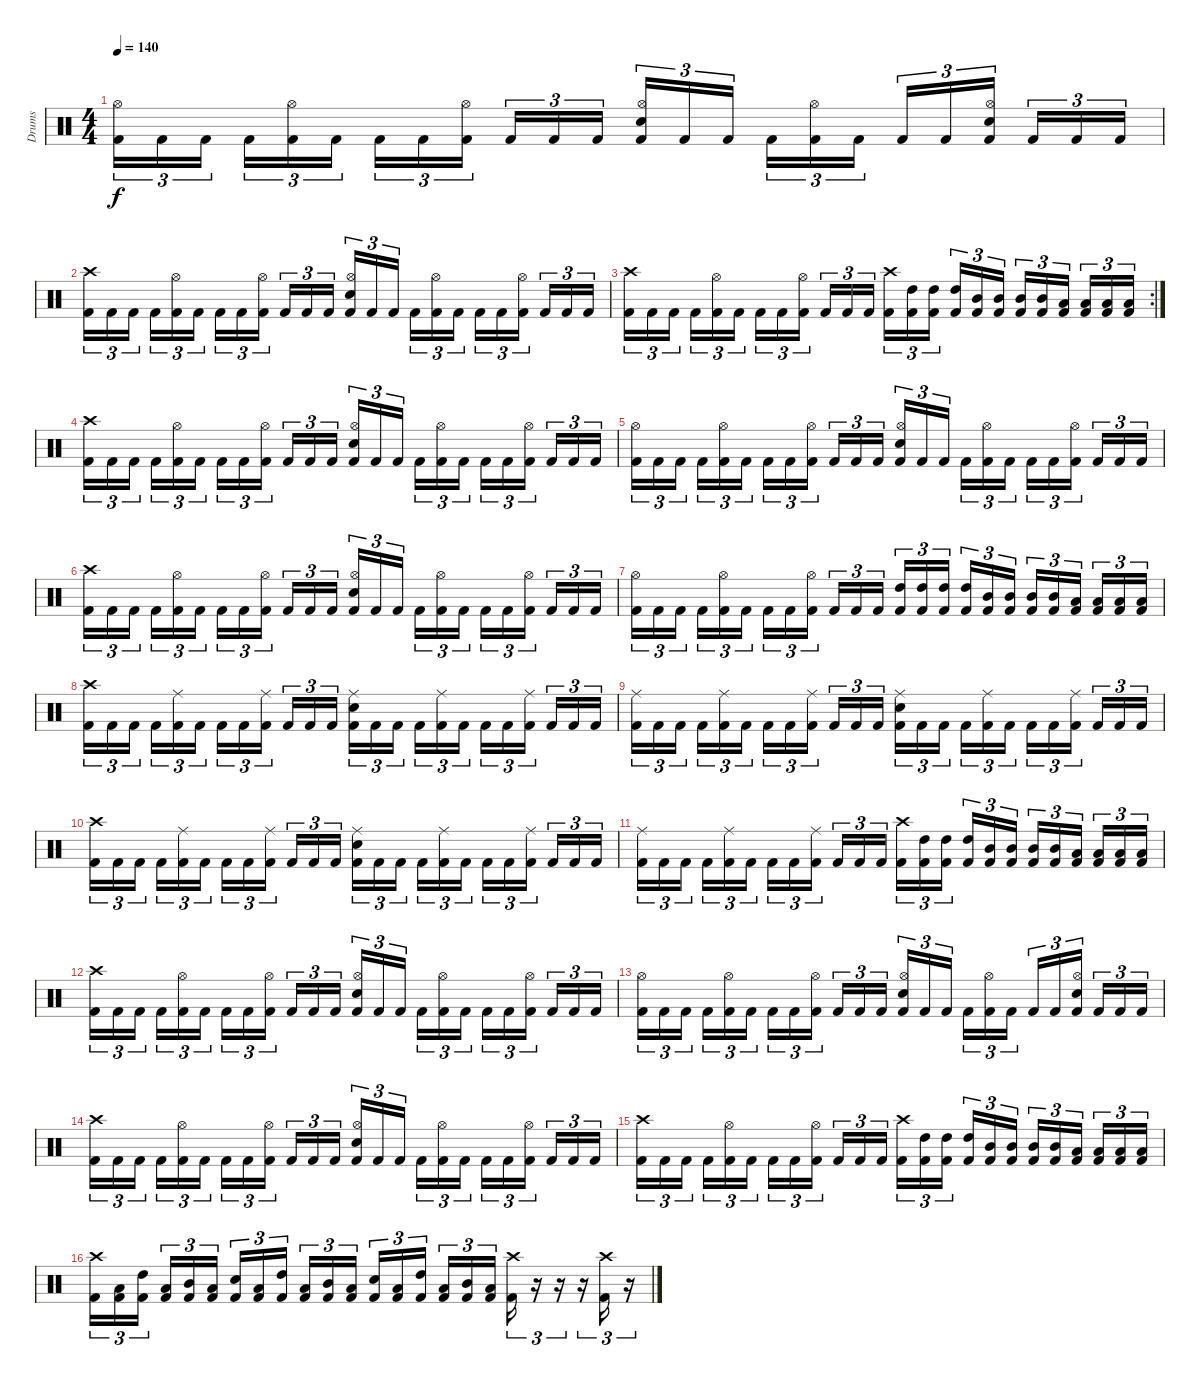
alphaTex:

\track ("Drums" "Drums") {instrument percussion}
\staff {score}
\articulation defaults
\ts (4 4)
\tempo 140
\clef neutral
\ks c
("Kick (hit) 2" "Hi-Hat (open)").16{tu (3 2) dy f} "Kick (hit) 2".16{tu (3 2)} "Kick (hit) 2".16{tu (3 2)} "Kick (hit) 2".16{tu (3 2)} ("Kick (hit) 2" "Hi-Hat (open)").16{tu (3 2)} "Kick (hit) 2".16{tu (3 2)} "Kick (hit) 2".16{tu (3 2)} "Kick (hit) 2".16{tu (3 2)} ("Kick (hit) 2" "Hi-Hat (open)").16{tu (3 2)} "Kick (hit) 2".16{tu (3 2)} "Kick (hit) 2".16{tu (3 2)} "Kick (hit) 2".16{tu (3 2)} ("Kick (hit) 2" "Snare (hit) 2" "Hi-Hat (open)").16{tu (3 2)} "Kick (hit) 2".16{tu (3 2)} "Kick (hit) 2".16{tu (3 2)} "Kick (hit) 2".16{tu (3 2)} ("Kick (hit) 2" "Hi-Hat (open)").16{tu (3 2)} "Kick (hit) 2".16{tu (3 2)} "Kick (hit) 2".16{tu (3 2)} "Kick (hit) 2".16{tu (3 2)} ("Kick (hit) 2" "Snare (hit) 2" "Hi-Hat (open)").16{tu (3 2)} "Kick (hit) 2".16{tu (3 2)} "Kick (hit) 2".16{tu (3 2)} "Kick (hit) 2".16{tu (3 2)} |
("Kick (hit) 2" "Crash high (hit)").16{tu (3 2)} "Kick (hit) 2".16{tu (3 2)} "Kick (hit) 2".16{tu (3 2)} "Kick (hit) 2".16{tu (3 2)} ("Kick (hit) 2" "Hi-Hat (open)").16{tu (3 2)} "Kick (hit) 2".16{tu (3 2)} "Kick (hit) 2".16{tu (3 2)} "Kick (hit) 2".16{tu (3 2)} ("Kick (hit) 2" "Hi-Hat (open)").16{tu (3 2)} "Kick (hit) 2".16{tu (3 2)} "Kick (hit) 2".16{tu (3 2)} "Kick (hit) 2".16{tu (3 2)} ("Kick (hit) 2" "Snare (hit) 2" "Hi-Hat (open)").16{tu (3 2)} "Kick (hit) 2".16{tu (3 2)} "Kick (hit) 2".16{tu (3 2)} "Kick (hit) 2".16{tu (3 2)} ("Kick (hit) 2" "Hi-Hat (open)").16{tu (3 2)} "Kick (hit) 2".16{tu (3 2)} "Kick (hit) 2".16{tu (3 2)} "Kick (hit) 2".16{tu (3 2)} ("Kick (hit) 2" "Hi-Hat (open)").16{tu (3 2)} "Kick (hit) 2".16{tu (3 2)} "Kick (hit) 2".16{tu (3 2)} "Kick (hit) 2".16{tu (3 2)} |
\rc 2
("Kick (hit) 2" "Crash high (hit)").16{tu (3 2)} "Kick (hit) 2".16{tu (3 2)} "Kick (hit) 2".16{tu (3 2)} "Kick (hit) 2".16{tu (3 2)} ("Kick (hit) 2" "Hi-Hat (open)").16{tu (3 2)} "Kick (hit) 2".16{tu (3 2)} "Kick (hit) 2".16{tu (3 2)} "Kick (hit) 2".16{tu (3 2)} ("Kick (hit) 2" "Hi-Hat (open)").16{tu (3 2)} "Kick (hit) 2".16{tu (3 2)} "Kick (hit) 2".16{tu (3 2)} "Kick (hit) 2".16{tu (3 2)} ("Kick (hit) 2" "Crash high (hit)").16{tu (3 2)} ("Kick (hit) 2" "High Tom (hit)").16{tu (3 2)} ("Kick (hit) 2" "High Tom (hit)").16{tu (3 2)} ("Kick (hit) 2" "High Tom (hit)").16{tu (3 2)} ("Kick (hit) 2" "Mid Tom (hit)").16{tu (3 2)} ("Kick (hit) 2" "Mid Tom (hit)").16{tu (3 2)} ("Kick (hit) 2" "Mid Tom (hit)").16{tu (3 2)} ("Kick (hit) 2" "Mid Tom (hit)").16{tu (3 2)} ("Kick (hit) 2" "Low Tom (hit)").16{tu (3 2)} ("Kick (hit) 2" "Low Tom (hit)").16{tu (3 2)} ("Kick (hit) 2" "Low Tom (hit)").16{tu (3 2)} ("Kick (hit) 2" "Low Tom (hit)").16{tu (3 2)} |
("Kick (hit) 2" "Crash high (hit)").16{tu (3 2)} "Kick (hit) 2".16{tu (3 2)} "Kick (hit) 2".16{tu (3 2)} "Kick (hit) 2".16{tu (3 2)} ("Kick (hit) 2" "Hi-Hat (open)").16{tu (3 2)} "Kick (hit) 2".16{tu (3 2)} "Kick (hit) 2".16{tu (3 2)} "Kick (hit) 2".16{tu (3 2)} ("Kick (hit) 2" "Hi-Hat (open)").16{tu (3 2)} "Kick (hit) 2".16{tu (3 2)} "Kick (hit) 2".16{tu (3 2)} "Kick (hit) 2".16{tu (3 2)} ("Kick (hit) 2" "Snare (hit) 2" "Hi-Hat (open)").16{tu (3 2)} "Kick (hit) 2".16{tu (3 2)} "Kick (hit) 2".16{tu (3 2)} "Kick (hit) 2".16{tu (3 2)} ("Kick (hit) 2" "Hi-Hat (open)").16{tu (3 2)} "Kick (hit) 2".16{tu (3 2)} "Kick (hit) 2".16{tu (3 2)} "Kick (hit) 2".16{tu (3 2)} ("Kick (hit) 2" "Hi-Hat (open)").16{tu (3 2)} "Kick (hit) 2".16{tu (3 2)} "Kick (hit) 2".16{tu (3 2)} "Kick (hit) 2".16{tu (3 2)} |
("Kick (hit) 2" "Hi-Hat (open)").16{tu (3 2)} "Kick (hit) 2".16{tu (3 2)} "Kick (hit) 2".16{tu (3 2)} "Kick (hit) 2".16{tu (3 2)} ("Kick (hit) 2" "Hi-Hat (open)").16{tu (3 2)} "Kick (hit) 2".16{tu (3 2)} "Kick (hit) 2".16{tu (3 2)} "Kick (hit) 2".16{tu (3 2)} ("Kick (hit) 2" "Hi-Hat (open)").16{tu (3 2)} "Kick (hit) 2".16{tu (3 2)} "Kick (hit) 2".16{tu (3 2)} "Kick (hit) 2".16{tu (3 2)} ("Kick (hit) 2" "Snare (hit) 2" "Hi-Hat (open)").16{tu (3 2)} "Kick (hit) 2".16{tu (3 2)} "Kick (hit) 2".16{tu (3 2)} "Kick (hit) 2".16{tu (3 2)} ("Kick (hit) 2" "Hi-Hat (open)").16{tu (3 2)} "Kick (hit) 2".16{tu (3 2)} "Kick (hit) 2".16{tu (3 2)} "Kick (hit) 2".16{tu (3 2)} ("Kick (hit) 2" "Hi-Hat (open)").16{tu (3 2)} "Kick (hit) 2".16{tu (3 2)} "Kick (hit) 2".16{tu (3 2)} "Kick (hit) 2".16{tu (3 2)} |
("Kick (hit) 2" "Crash high (hit)").16{tu (3 2)} "Kick (hit) 2".16{tu (3 2)} "Kick (hit) 2".16{tu (3 2)} "Kick (hit) 2".16{tu (3 2)} ("Kick (hit) 2" "Hi-Hat (open)").16{tu (3 2)} "Kick (hit) 2".16{tu (3 2)} "Kick (hit) 2".16{tu (3 2)} "Kick (hit) 2".16{tu (3 2)} ("Kick (hit) 2" "Hi-Hat (open)").16{tu (3 2)} "Kick (hit) 2".16{tu (3 2)} "Kick (hit) 2".16{tu (3 2)} "Kick (hit) 2".16{tu (3 2)} ("Kick (hit) 2" "Snare (hit) 2" "Hi-Hat (open)").16{tu (3 2)} "Kick (hit) 2".16{tu (3 2)} "Kick (hit) 2".16{tu (3 2)} "Kick (hit) 2".16{tu (3 2)} ("Kick (hit) 2" "Hi-Hat (open)").16{tu (3 2)} "Kick (hit) 2".16{tu (3 2)} "Kick (hit) 2".16{tu (3 2)} "Kick (hit) 2".16{tu (3 2)} ("Kick (hit) 2" "Hi-Hat (open)").16{tu (3 2)} "Kick (hit) 2".16{tu (3 2)} "Kick (hit) 2".16{tu (3 2)} "Kick (hit) 2".16{tu (3 2)} |
("Kick (hit) 2" "Hi-Hat (open)").16{tu (3 2)} "Kick (hit) 2".16{tu (3 2)} "Kick (hit) 2".16{tu (3 2)} "Kick (hit) 2".16{tu (3 2)} ("Kick (hit) 2" "Hi-Hat (open)").16{tu (3 2)} "Kick (hit) 2".16{tu (3 2)} "Kick (hit) 2".16{tu (3 2)} "Kick (hit) 2".16{tu (3 2)} ("Kick (hit) 2" "Hi-Hat (open)").16{tu (3 2)} "Kick (hit) 2".16{tu (3 2)} "Kick (hit) 2".16{tu (3 2)} "Kick (hit) 2".16{tu (3 2)} ("Kick (hit) 2" "High Tom (hit)").16{tu (3 2)} ("Kick (hit) 2" "High Tom (hit)").16{tu (3 2)} ("Kick (hit) 2" "High Tom (hit)").16{tu (3 2)} ("Kick (hit) 2" "High Tom (hit)").16{tu (3 2)} ("Kick (hit) 2" "Mid Tom (hit)").16{tu (3 2)} ("Kick (hit) 2" "Mid Tom (hit)").16{tu (3 2)} ("Kick (hit) 2" "Mid Tom (hit)").16{tu (3 2)} ("Kick (hit) 2" "Mid Tom (hit)").16{tu (3 2)} ("Kick (hit) 2" "Low Tom (hit)").16{tu (3 2)} ("Kick (hit) 2" "Low Tom (hit)").16{tu (3 2)} ("Kick (hit) 2" "Low Tom (hit)").16{tu (3 2)} ("Kick (hit) 2" "Low Tom (hit)").16{tu (3 2)} |
("Kick (hit) 2" "Crash high (hit)").16{tu (3 2)} "Kick (hit) 2".16{tu (3 2)} "Kick (hit) 2".16{tu (3 2)} "Kick (hit) 2".16{tu (3 2)} ("Kick (hit) 2" "Ride (middle)").16{tu (3 2)} "Kick (hit) 2".16{tu (3 2)} "Kick (hit) 2".16{tu (3 2)} "Kick (hit) 2".16{tu (3 2)} ("Kick (hit) 2" "Ride (middle)").16{tu (3 2)} "Kick (hit) 2".16{tu (3 2)} "Kick (hit) 2".16{tu (3 2)} "Kick (hit) 2".16{tu (3 2)} ("Kick (hit) 2" "Snare (hit) 2" "Ride (middle)").16{tu (3 2)} "Kick (hit) 2".16{tu (3 2)} "Kick (hit) 2".16{tu (3 2)} "Kick (hit) 2".16{tu (3 2)} ("Kick (hit) 2" "Ride (middle)").16{tu (3 2)} "Kick (hit) 2".16{tu (3 2)} "Kick (hit) 2".16{tu (3 2)} "Kick (hit) 2".16{tu (3 2)} ("Kick (hit) 2" "Ride (middle)").16{tu (3 2)} "Kick (hit) 2".16{tu (3 2)} "Kick (hit) 2".16{tu (3 2)} "Kick (hit) 2".16{tu (3 2)} |
("Kick (hit) 2" "Ride (middle)").16{tu (3 2)} "Kick (hit) 2".16{tu (3 2)} "Kick (hit) 2".16{tu (3 2)} "Kick (hit) 2".16{tu (3 2)} ("Kick (hit) 2" "Ride (middle)").16{tu (3 2)} "Kick (hit) 2".16{tu (3 2)} "Kick (hit) 2".16{tu (3 2)} "Kick (hit) 2".16{tu (3 2)} ("Kick (hit) 2" "Ride (middle)").16{tu (3 2)} "Kick (hit) 2".16{tu (3 2)} "Kick (hit) 2".16{tu (3 2)} "Kick (hit) 2".16{tu (3 2)} ("Kick (hit) 2" "Snare (hit) 2" "Ride (middle)").16{tu (3 2)} "Kick (hit) 2".16{tu (3 2)} "Kick (hit) 2".16{tu (3 2)} "Kick (hit) 2".16{tu (3 2)} ("Kick (hit) 2" "Ride (middle)").16{tu (3 2)} "Kick (hit) 2".16{tu (3 2)} "Kick (hit) 2".16{tu (3 2)} "Kick (hit) 2".16{tu (3 2)} ("Kick (hit) 2" "Ride (middle)").16{tu (3 2)} "Kick (hit) 2".16{tu (3 2)} "Kick (hit) 2".16{tu (3 2)} "Kick (hit) 2".16{tu (3 2)} |
("Kick (hit) 2" "Crash high (hit)").16{tu (3 2)} "Kick (hit) 2".16{tu (3 2)} "Kick (hit) 2".16{tu (3 2)} "Kick (hit) 2".16{tu (3 2)} ("Kick (hit) 2" "Ride (middle)").16{tu (3 2)} "Kick (hit) 2".16{tu (3 2)} "Kick (hit) 2".16{tu (3 2)} "Kick (hit) 2".16{tu (3 2)} ("Kick (hit) 2" "Ride (middle)").16{tu (3 2)} "Kick (hit) 2".16{tu (3 2)} "Kick (hit) 2".16{tu (3 2)} "Kick (hit) 2".16{tu (3 2)} ("Kick (hit) 2" "Snare (hit) 2" "Ride (middle)").16{tu (3 2)} "Kick (hit) 2".16{tu (3 2)} "Kick (hit) 2".16{tu (3 2)} "Kick (hit) 2".16{tu (3 2)} ("Kick (hit) 2" "Ride (middle)").16{tu (3 2)} "Kick (hit) 2".16{tu (3 2)} "Kick (hit) 2".16{tu (3 2)} "Kick (hit) 2".16{tu (3 2)} ("Kick (hit) 2" "Ride (middle)").16{tu (3 2)} "Kick (hit) 2".16{tu (3 2)} "Kick (hit) 2".16{tu (3 2)} "Kick (hit) 2".16{tu (3 2)} |
("Kick (hit) 2" "Ride (middle)").16{tu (3 2)} "Kick (hit) 2".16{tu (3 2)} "Kick (hit) 2".16{tu (3 2)} "Kick (hit) 2".16{tu (3 2)} ("Kick (hit) 2" "Ride (middle)").16{tu (3 2)} "Kick (hit) 2".16{tu (3 2)} "Kick (hit) 2".16{tu (3 2)} "Kick (hit) 2".16{tu (3 2)} ("Kick (hit) 2" "Ride (middle)").16{tu (3 2)} "Kick (hit) 2".16{tu (3 2)} "Kick (hit) 2".16{tu (3 2)} "Kick (hit) 2".16{tu (3 2)} ("Kick (hit) 2" "Crash high (hit)").16{tu (3 2)} ("Kick (hit) 2" "High Tom (hit)").16{tu (3 2)} ("Kick (hit) 2" "High Tom (hit)").16{tu (3 2)} ("Kick (hit) 2" "High Tom (hit)").16{tu (3 2)} ("Kick (hit) 2" "Mid Tom (hit)").16{tu (3 2)} ("Kick (hit) 2" "Mid Tom (hit)").16{tu (3 2)} ("Kick (hit) 2" "Mid Tom (hit)").16{tu (3 2)} ("Kick (hit) 2" "Mid Tom (hit)").16{tu (3 2)} ("Kick (hit) 2" "Low Tom (hit)").16{tu (3 2)} ("Kick (hit) 2" "Low Tom (hit)").16{tu (3 2)} ("Kick (hit) 2" "Low Tom (hit)").16{tu (3 2)} ("Kick (hit) 2" "Low Tom (hit)").16{tu (3 2)} |
("Kick (hit) 2" "Crash high (hit)").16{tu (3 2)} "Kick (hit) 2".16{tu (3 2)} "Kick (hit) 2".16{tu (3 2)} "Kick (hit) 2".16{tu (3 2)} ("Kick (hit) 2" "Hi-Hat (open)").16{tu (3 2)} "Kick (hit) 2".16{tu (3 2)} "Kick (hit) 2".16{tu (3 2)} "Kick (hit) 2".16{tu (3 2)} ("Kick (hit) 2" "Hi-Hat (open)").16{tu (3 2)} "Kick (hit) 2".16{tu (3 2)} "Kick (hit) 2".16{tu (3 2)} "Kick (hit) 2".16{tu (3 2)} ("Kick (hit) 2" "Snare (hit) 2" "Hi-Hat (open)").16{tu (3 2)} "Kick (hit) 2".16{tu (3 2)} "Kick (hit) 2".16{tu (3 2)} "Kick (hit) 2".16{tu (3 2)} ("Kick (hit) 2" "Hi-Hat (open)").16{tu (3 2)} "Kick (hit) 2".16{tu (3 2)} "Kick (hit) 2".16{tu (3 2)} "Kick (hit) 2".16{tu (3 2)} ("Kick (hit) 2" "Hi-Hat (open)").16{tu (3 2)} "Kick (hit) 2".16{tu (3 2)} "Kick (hit) 2".16{tu (3 2)} "Kick (hit) 2".16{tu (3 2)} |
("Kick (hit) 2" "Hi-Hat (open)").16{tu (3 2)} "Kick (hit) 2".16{tu (3 2)} "Kick (hit) 2".16{tu (3 2)} "Kick (hit) 2".16{tu (3 2)} ("Kick (hit) 2" "Hi-Hat (open)").16{tu (3 2)} "Kick (hit) 2".16{tu (3 2)} "Kick (hit) 2".16{tu (3 2)} "Kick (hit) 2".16{tu (3 2)} ("Kick (hit) 2" "Hi-Hat (open)").16{tu (3 2)} "Kick (hit) 2".16{tu (3 2)} "Kick (hit) 2".16{tu (3 2)} "Kick (hit) 2".16{tu (3 2)} ("Kick (hit) 2" "Snare (hit) 2" "Hi-Hat (open)").16{tu (3 2)} "Kick (hit) 2".16{tu (3 2)} "Kick (hit) 2".16{tu (3 2)} "Kick (hit) 2".16{tu (3 2)} ("Kick (hit) 2" "Hi-Hat (open)").16{tu (3 2)} "Kick (hit) 2".16{tu (3 2)} "Kick (hit) 2".16{tu (3 2)} "Kick (hit) 2".16{tu (3 2)} ("Kick (hit) 2" "Snare (hit) 2" "Hi-Hat (open)").16{tu (3 2)} "Kick (hit) 2".16{tu (3 2)} "Kick (hit) 2".16{tu (3 2)} "Kick (hit) 2".16{tu (3 2)} |
("Kick (hit) 2" "Crash high (hit)").16{tu (3 2)} "Kick (hit) 2".16{tu (3 2)} "Kick (hit) 2".16{tu (3 2)} "Kick (hit) 2".16{tu (3 2)} ("Kick (hit) 2" "Hi-Hat (open)").16{tu (3 2)} "Kick (hit) 2".16{tu (3 2)} "Kick (hit) 2".16{tu (3 2)} "Kick (hit) 2".16{tu (3 2)} ("Kick (hit) 2" "Hi-Hat (open)").16{tu (3 2)} "Kick (hit) 2".16{tu (3 2)} "Kick (hit) 2".16{tu (3 2)} "Kick (hit) 2".16{tu (3 2)} ("Kick (hit) 2" "Snare (hit) 2" "Hi-Hat (open)").16{tu (3 2)} "Kick (hit) 2".16{tu (3 2)} "Kick (hit) 2".16{tu (3 2)} "Kick (hit) 2".16{tu (3 2)} ("Kick (hit) 2" "Hi-Hat (open)").16{tu (3 2)} "Kick (hit) 2".16{tu (3 2)} "Kick (hit) 2".16{tu (3 2)} "Kick (hit) 2".16{tu (3 2)} ("Kick (hit) 2" "Hi-Hat (open)").16{tu (3 2)} "Kick (hit) 2".16{tu (3 2)} "Kick (hit) 2".16{tu (3 2)} "Kick (hit) 2".16{tu (3 2)} |
("Kick (hit) 2" "Crash high (hit)").16{tu (3 2)} "Kick (hit) 2".16{tu (3 2)} "Kick (hit) 2".16{tu (3 2)} "Kick (hit) 2".16{tu (3 2)} ("Kick (hit) 2" "Hi-Hat (open)").16{tu (3 2)} "Kick (hit) 2".16{tu (3 2)} "Kick (hit) 2".16{tu (3 2)} "Kick (hit) 2".16{tu (3 2)} ("Kick (hit) 2" "Hi-Hat (open)").16{tu (3 2)} "Kick (hit) 2".16{tu (3 2)} "Kick (hit) 2".16{tu (3 2)} "Kick (hit) 2".16{tu (3 2)} ("Kick (hit) 2" "Crash high (hit)").16{tu (3 2)} ("Kick (hit) 2" "High Tom (hit)").16{tu (3 2)} ("Kick (hit) 2" "High Tom (hit)").16{tu (3 2)} ("Kick (hit) 2" "High Tom (hit)").16{tu (3 2)} ("Kick (hit) 2" "Mid Tom (hit)").16{tu (3 2)} ("Kick (hit) 2" "Mid Tom (hit)").16{tu (3 2)} ("Kick (hit) 2" "Mid Tom (hit)").16{tu (3 2)} ("Kick (hit) 2" "Mid Tom (hit)").16{tu (3 2)} ("Kick (hit) 2" "Low Tom (hit)").16{tu (3 2)} ("Kick (hit) 2" "Low Tom (hit)").16{tu (3 2)} ("Kick (hit) 2" "Low Tom (hit)").16{tu (3 2)} ("Kick (hit) 2" "Low Tom (hit)").16{tu (3 2)} |
("Kick (hit) 2" "Crash high (hit)").16{tu (3 2)} ("Kick (hit) 2" "Low Tom (hit)").16{tu (3 2)} ("Kick (hit) 2" "High Tom (hit)").16{tu (3 2)} ("Kick (hit) 2" "Low Tom (hit)").16{tu (3 2)} ("Kick (hit) 2" "Mid Tom (hit)").16{tu (3 2)} ("Kick (hit) 2" "Low Tom (hit)").16{tu (3 2)} ("Kick (hit) 2" "Snare (hit) 2").16{tu (3 2)} ("Kick (hit) 2" "Low Tom (hit)").16{tu (3 2)} ("Kick (hit) 2" "High Tom (hit)").16{tu (3 2)} ("Kick (hit) 2" "Low Tom (hit)").16{tu (3 2)} ("Kick (hit) 2" "Mid Tom (hit)").16{tu (3 2)} ("Kick (hit) 2" "Low Tom (hit)").16{tu (3 2)} ("Kick (hit) 2" "Snare (hit) 2").16{tu (3 2)} ("Kick (hit) 2" "Low Tom (hit)").16{tu (3 2)} ("Kick (hit) 2" "High Tom (hit)").16{tu (3 2)} ("Kick (hit) 2" "Low Tom (hit)").16{tu (3 2)} ("Kick (hit) 2" "Mid Tom (hit)").16{tu (3 2)} ("Kick (hit) 2" "Low Tom (hit)").16{tu (3 2)} ("Kick (hit) 2" "Crash high (hit)").16{tu (3 2)} r.16{tu (3 2)} r.16{tu (3 2)} r.16{tu (3 2)} ("Kick (hit) 2" "Crash high (hit)").16{tu (3 2)} r.16{tu (3 2)}
